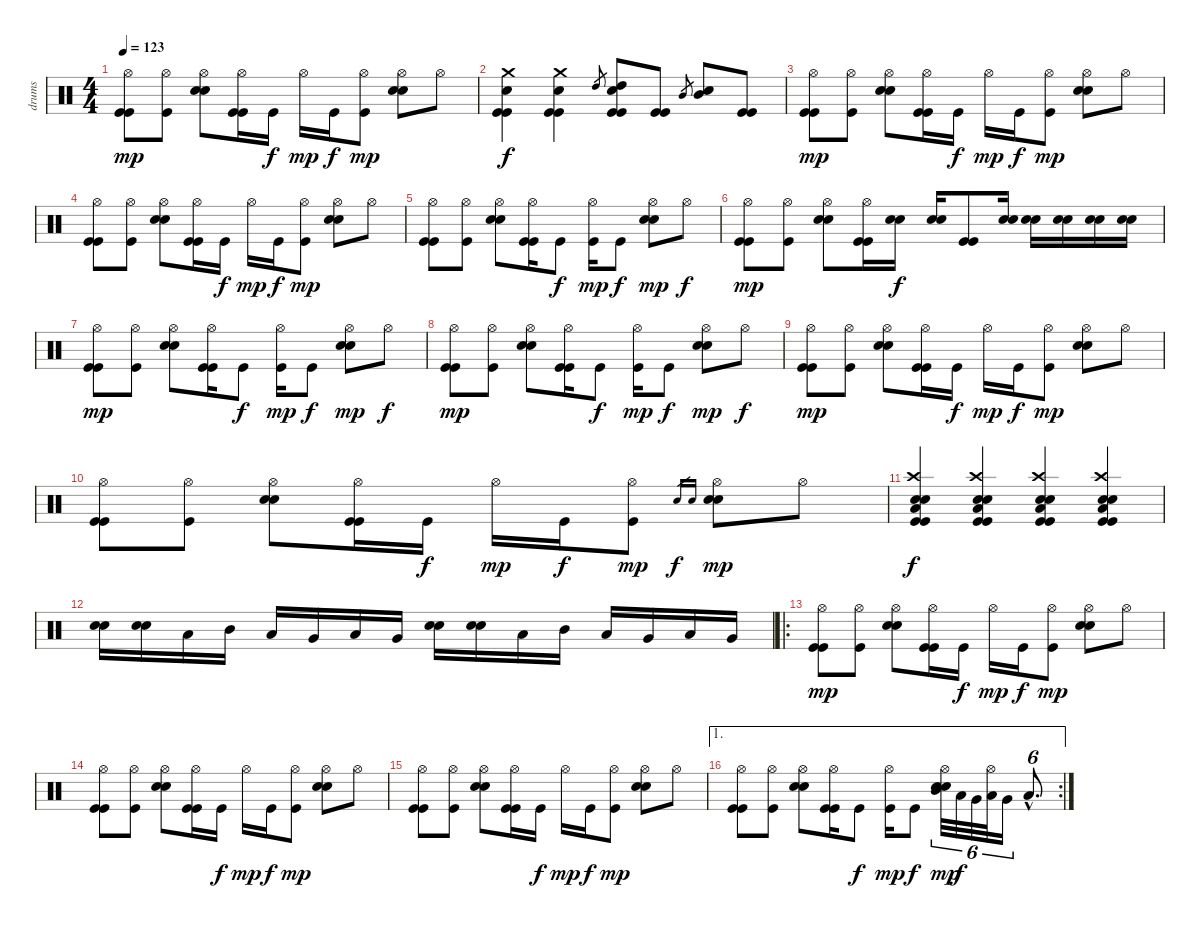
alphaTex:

\track ("drums" "drums") {instrument percussion}
\staff {score}
\articulation defaults
\ts (4 4)
\tempo 123
\clef neutral
\ks c
("Hi-Hat (open)" "Kick (hit)" "Kick (hit)").8{dy mp} ("Hi-Hat (open)" "Kick (hit)").8 ("Hi-Hat (open)" "Snare (hit) 2" "Snare (hit) 2").8 ("Hi-Hat (open)" "Kick (hit)" "Kick (hit)").16 "Kick (hit)".16{dy f} "Hi-Hat (open)".16{dy mp} "Kick (hit)".16{dy f} ("Hi-Hat (open)" "Kick (hit)").8{dy mp} ("Hi-Hat (open)" "Snare (hit) 2" "Snare (hit) 2").8 "Hi-Hat (open)".8 |
("Crash medium (hit)" "Snare (hit) 2" "Kick (hit)" "Kick (hit)").4{dy f} ("Crash medium (hit)" "Snare (hit) 2" "Kick (hit)" "Kick (hit)").4 "High Tom (hit)".8{gr} ("Snare (hit) 2" "High Tom (hit)" "Kick (hit)" "Kick (hit)").8 ("Kick (hit)" "Kick (hit)").8 "Mid Tom (hit)".8{gr} ("Snare (hit) 2" "Mid Tom (hit)").8 ("Kick (hit)" "Kick (hit)").8 |
("Hi-Hat (open)" "Kick (hit)" "Kick (hit)").8{dy mp} ("Hi-Hat (open)" "Kick (hit)").8 ("Hi-Hat (open)" "Snare (hit) 2" "Snare (hit) 2").8 ("Hi-Hat (open)" "Kick (hit)" "Kick (hit)").16 "Kick (hit)".16{dy f} "Hi-Hat (open)".16{dy mp} "Kick (hit)".16{dy f} ("Hi-Hat (open)" "Kick (hit)").8{dy mp} ("Hi-Hat (open)" "Snare (hit) 2" "Snare (hit) 2").8 "Hi-Hat (open)".8 |
("Hi-Hat (open)" "Kick (hit)" "Kick (hit)").8 ("Hi-Hat (open)" "Kick (hit)").8 ("Hi-Hat (open)" "Snare (hit) 2" "Snare (hit) 2").8 ("Hi-Hat (open)" "Kick (hit)" "Kick (hit)").16 "Kick (hit)".16{dy f} "Hi-Hat (open)".16{dy mp} "Kick (hit)".16{dy f} ("Hi-Hat (open)" "Kick (hit)").8{dy mp} ("Hi-Hat (open)" "Snare (hit) 2" "Snare (hit) 2").8 "Hi-Hat (open)".8 |
("Hi-Hat (open)" "Kick (hit)" "Kick (hit)").8 ("Hi-Hat (open)" "Kick (hit)").8 ("Hi-Hat (open)" "Snare (hit) 2" "Snare (hit) 2").8 ("Hi-Hat (open)" "Kick (hit)" "Kick (hit)").16 "Kick (hit)".8{dy f} ("Hi-Hat (open)" "Kick (hit)").16{dy mp} "Kick (hit)".8{dy f} ("Hi-Hat (open)" "Snare (hit) 2" "Snare (hit) 2").8{dy mp} "Hi-Hat (open)".8{dy f} |
("Hi-Hat (open)" "Kick (hit)" "Kick (hit)").8{dy mp} ("Hi-Hat (open)" "Kick (hit)").8 ("Hi-Hat (open)" "Snare (hit) 2" "Snare (hit) 2").8 ("Hi-Hat (open)" "Kick (hit)" "Kick (hit)").16 ("Snare (hit) 2" "Snare (hit) 2").16{dy f} ("Snare (hit) 2" "Snare (hit) 2").16 ("Kick (hit)" "Kick (hit)").8 ("Snare (hit) 2" "Snare (hit) 2").16 ("Snare (hit) 2" "Snare (hit) 2").16 ("Snare (hit) 2" "Snare (hit) 2").16 ("Snare (hit) 2" "Snare (hit) 2").16 ("Snare (hit) 2" "Snare (hit) 2").16 |
("Hi-Hat (open)" "Kick (hit)" "Kick (hit)").8{dy mp} ("Hi-Hat (open)" "Kick (hit)").8 ("Hi-Hat (open)" "Snare (hit) 2" "Snare (hit) 2").8 ("Hi-Hat (open)" "Kick (hit)" "Kick (hit)").16 "Kick (hit)".8{dy f} ("Hi-Hat (open)" "Kick (hit)").16{dy mp} "Kick (hit)".8{dy f} ("Hi-Hat (open)" "Snare (hit) 2" "Snare (hit) 2").8{dy mp} "Hi-Hat (open)".8{dy f} |
("Hi-Hat (open)" "Kick (hit)" "Kick (hit)").8{dy mp} ("Hi-Hat (open)" "Kick (hit)").8 ("Hi-Hat (open)" "Snare (hit) 2" "Snare (hit) 2").8 ("Hi-Hat (open)" "Kick (hit)" "Kick (hit)").16 "Kick (hit)".8{dy f} ("Hi-Hat (open)" "Kick (hit)").16{dy mp} "Kick (hit)".8{dy f} ("Hi-Hat (open)" "Snare (hit) 2" "Snare (hit) 2").8{dy mp} "Hi-Hat (open)".8{dy f} |
("Hi-Hat (open)" "Kick (hit)" "Kick (hit)").8{dy mp} ("Hi-Hat (open)" "Kick (hit)").8 ("Hi-Hat (open)" "Snare (hit) 2" "Snare (hit) 2").8 ("Hi-Hat (open)" "Kick (hit)" "Kick (hit)").16 "Kick (hit)".16{dy f} "Hi-Hat (open)".16{dy mp} "Kick (hit)".16{dy f} ("Hi-Hat (open)" "Kick (hit)").8{dy mp} ("Hi-Hat (open)" "Snare (hit) 2" "Snare (hit) 2").8 "Hi-Hat (open)".8 |
("Hi-Hat (open)" "Kick (hit)" "Kick (hit)").8 ("Hi-Hat (open)" "Kick (hit)").8 ("Hi-Hat (open)" "Snare (hit) 2" "Snare (hit) 2").8 ("Hi-Hat (open)" "Kick (hit)" "Kick (hit)").16 "Kick (hit)".16{dy f} "Hi-Hat (open)".16{dy mp} "Kick (hit)".16{dy f} ("Hi-Hat (open)" "Kick (hit)").8{dy mp} "Snare (hit) 2".16{gr dy f} "Snare (hit) 2".16{gr} ("Hi-Hat (open)" "Snare (hit) 2" "Snare (hit) 2").8{dy mp} "Hi-Hat (open)".8 |
("Crash high (hit)" "Snare (hit) 2" "Snare (hit) 2" "Low Floor Tom (hit)" "Kick (hit)" "Kick (hit)").4{dy f} ("Crash high (hit)" "Snare (hit) 2" "Snare (hit) 2" "Low Floor Tom (hit)" "Kick (hit)" "Kick (hit)").4 ("Crash high (hit)" "Snare (hit) 2" "Snare (hit) 2" "Low Floor Tom (hit)" "Kick (hit)" "Kick (hit)").4 ("Crash high (hit)" "Snare (hit) 2" "Snare (hit) 2" "Low Floor Tom (hit)" "Kick (hit)" "Kick (hit)").4 |
("Snare (hit) 2" "Snare (hit) 2").16 ("Snare (hit) 2" "Snare (hit) 2").16 "Low Tom (hit)".16 "Mid Tom (hit)".16 "Low Tom (hit)".16 "Very Low Tom (hit)".16 "Low Floor Tom (hit)".16 "Very Low Tom (hit)".16 ("Snare (hit) 2" "Snare (hit) 2").16 ("Snare (hit) 2" "Snare (hit) 2").16 "Low Tom (hit)".16 "Mid Tom (hit)".16 "Low Tom (hit)".16 "Very Low Tom (hit)".16 "Low Floor Tom (hit)".16 "Very Low Tom (hit)".16 |
\ro
("Hi-Hat (open)" "Kick (hit)" "Kick (hit)").8{dy mp} ("Hi-Hat (open)" "Kick (hit)").8 ("Hi-Hat (open)" "Snare (hit) 2" "Snare (hit) 2").8 ("Hi-Hat (open)" "Kick (hit)" "Kick (hit)").16 "Kick (hit)".16{dy f} "Hi-Hat (open)".16{dy mp} "Kick (hit)".16{dy f} ("Hi-Hat (open)" "Kick (hit)").8{dy mp} ("Hi-Hat (open)" "Snare (hit) 2" "Snare (hit) 2").8 "Hi-Hat (open)".8 |
("Hi-Hat (open)" "Kick (hit)" "Kick (hit)").8 ("Hi-Hat (open)" "Kick (hit)").8 ("Hi-Hat (open)" "Snare (hit) 2" "Snare (hit) 2").8 ("Hi-Hat (open)" "Kick (hit)" "Kick (hit)").16 "Kick (hit)".16{dy f} "Hi-Hat (open)".16{dy mp} "Kick (hit)".16{dy f} ("Hi-Hat (open)" "Kick (hit)").8{dy mp} ("Hi-Hat (open)" "Snare (hit) 2" "Snare (hit) 2").8 "Hi-Hat (open)".8 |
("Hi-Hat (open)" "Kick (hit)" "Kick (hit)").8 ("Hi-Hat (open)" "Kick (hit)").8 ("Hi-Hat (open)" "Snare (hit) 2" "Snare (hit) 2").8 ("Hi-Hat (open)" "Kick (hit)" "Kick (hit)").16 "Kick (hit)".16{dy f} "Hi-Hat (open)".16{dy mp} "Kick (hit)".16{dy f} ("Hi-Hat (open)" "Kick (hit)").8{dy mp} ("Hi-Hat (open)" "Snare (hit) 2" "Snare (hit) 2").8 "Hi-Hat (open)".8 |
\ae 1
\rc 2
("Hi-Hat (open)" "Kick (hit)" "Kick (hit)").8 ("Hi-Hat (open)" "Kick (hit)").8 ("Hi-Hat (open)" "Snare (hit) 2" "Snare (hit) 2").8 ("Hi-Hat (open)" "Kick (hit)" "Kick (hit)").16 "Kick (hit)".8{dy f} ("Hi-Hat (open)" "Kick (hit)").16{dy mp} "Kick (hit)".8{dy f} ("Hi-Hat (open)" "Snare (hit) 2" "Snare (hit) 2" "Mid Tom (hit)").32{tu (6 4) dy mp} "Low Tom (hit)".32{tu (6 4) dy f} "Very Low Tom (hit)".32{tu (6 4)} ("Hi-Hat (open)" "Low Floor Tom (hit)").32{tu (6 4)} "Very Low Tom (hit)".16{tu (6 4)} "Low Floor Tom (hit)"{hac}.8{d tu (6 4)}
